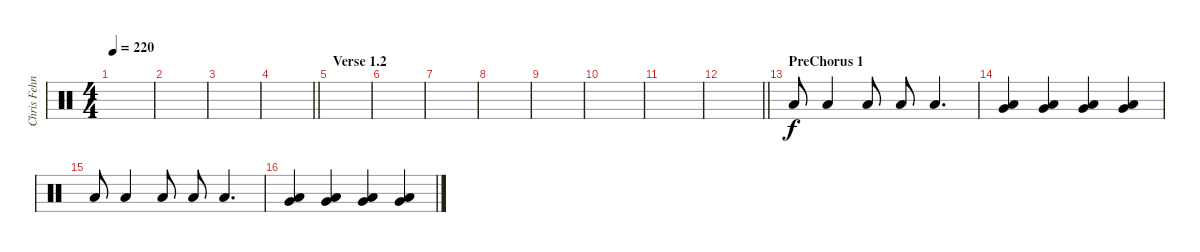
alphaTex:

\track ("Chris Fehn" "Chris Fehn") {instrument percussion}
\staff {score}
\articulation defaults
\ts (4 4)
\tempo 220
\clef neutral
\ks c
|
|
|
\barLineRight lightlight
|
\section ("" "Verse 1.2")
|
|
|
|
|
|
|
\barLineRight lightlight
|
\section ("" "PreChorus 1")
"Low Floor Tom (hit)".8 "Low Floor Tom (hit)".4 "Low Floor Tom (hit)".8 "Low Floor Tom (hit)".8 "Low Floor Tom (hit)".4{d} |
("Very Low Tom (hit)" "Low Floor Tom (hit)").4 ("Very Low Tom (hit)" "Low Floor Tom (hit)").4 ("Very Low Tom (hit)" "Low Floor Tom (hit)").4 ("Very Low Tom (hit)" "Low Floor Tom (hit)").4 |
"Low Floor Tom (hit)".8 "Low Floor Tom (hit)".4 "Low Floor Tom (hit)".8 "Low Floor Tom (hit)".8 "Low Floor Tom (hit)".4{d} |
("Very Low Tom (hit)" "Low Floor Tom (hit)").4 ("Very Low Tom (hit)" "Low Floor Tom (hit)").4 ("Very Low Tom (hit)" "Low Floor Tom (hit)").4 ("Very Low Tom (hit)" "Low Floor Tom (hit)").4
